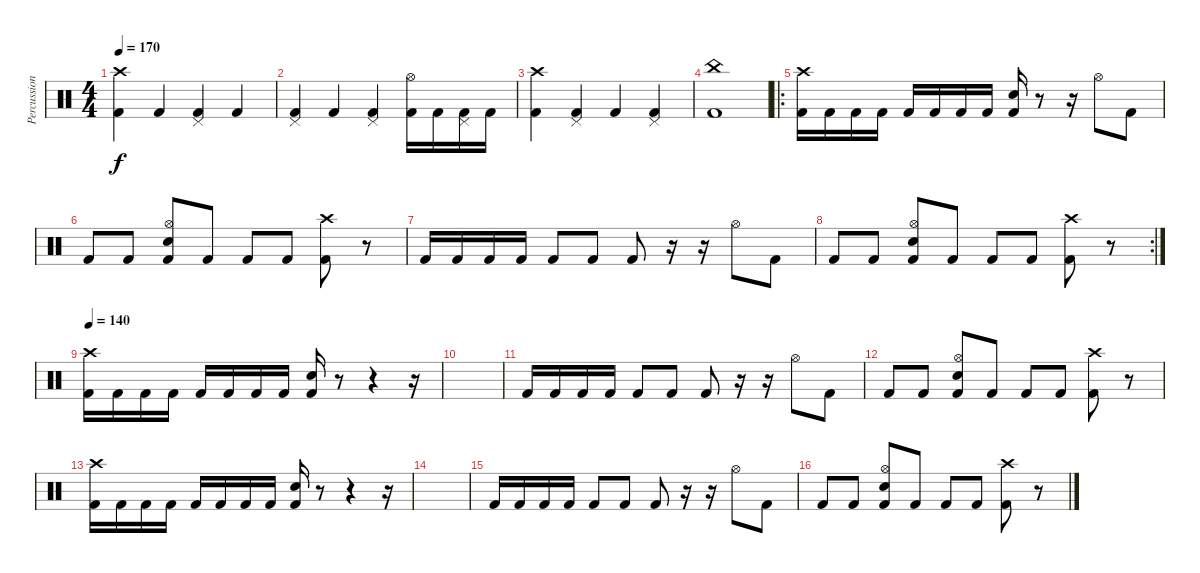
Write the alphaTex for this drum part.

\track ("Percussion" "Percussion") {instrument percussion}
\staff {score}
\articulation defaults
\ts (4 4)
\tempo 170
\clef neutral
\ks c
("Crash high (hit)" "Kick (hit) 2").4{dy f} "Kick (hit) 2".4 ("Pedal Hi-Hat (hit)" "Kick (hit) 2").4 "Kick (hit) 2".4 |
("Pedal Hi-Hat (hit)" "Kick (hit) 2").4 "Kick (hit) 2".4 ("Pedal Hi-Hat (hit)" "Kick (hit) 2").4 ("Hi-Hat (open)" "Kick (hit) 2").16 "Kick (hit) 2".16 ("Pedal Hi-Hat (hit)" "Kick (hit) 2").16 "Kick (hit) 2".16 |
("Crash high (hit)" "Kick (hit) 2").4 ("Pedal Hi-Hat (hit)" "Kick (hit) 2").4 "Kick (hit) 2".4 ("Pedal Hi-Hat (hit)" "Kick (hit) 2").4 |
("China (hit)" "Kick (hit) 2").1 |
\ro
("Crash high (hit)" "Kick (hit) 2").16 "Kick (hit) 2".16 "Kick (hit) 2".16 "Kick (hit) 2".16 "Kick (hit) 2".16 "Kick (hit) 2".16 "Kick (hit) 2".16 "Kick (hit) 2".16 ("Electric Snare (hit)" "Kick (hit) 2").16 r.8 r.16 "Hi-Hat (open)".8 "Kick (hit) 2".8 |
"Kick (hit) 2".8 "Kick (hit) 2".8 ("Hi-Hat (open)" "Electric Snare (hit)" "Kick (hit) 2").8 "Kick (hit) 2".8 "Kick (hit) 2".8 "Kick (hit) 2".8 ("Crash high (hit)" "Kick (hit) 2").8 r.8 |
"Kick (hit) 2".16 "Kick (hit) 2".16 "Kick (hit) 2".16 "Kick (hit) 2".16 "Kick (hit) 2".8 "Kick (hit) 2".8 "Kick (hit) 2".8 r.16 r.16 "Hi-Hat (open)".8 "Kick (hit) 2".8 |
\rc 2 "Kick (hit) 2".8 "Kick (hit) 2".8
("Hi-Hat (open)" "Electric Snare (hit)" "Kick (hit) 2").8 "Kick (hit) 2".8 "Kick (hit) 2".8 "Kick (hit) 2".8 ("Crash high (hit)" "Kick (hit) 2").8 r.8 |
\tempo 140
("Crash high (hit)" "Kick (hit) 2").16 "Kick (hit) 2".16 "Kick (hit) 2".16 "Kick (hit) 2".16 "Kick (hit) 2".16 "Kick (hit) 2".16 "Kick (hit) 2".16 "Kick (hit) 2".16 ("Electric Snare (hit)" "Kick (hit) 2").16 r.8 r.4 r.16 |
|
"Kick (hit) 2".16 "Kick (hit) 2".16 "Kick (hit) 2".16 "Kick (hit) 2".16 "Kick (hit) 2".8 "Kick (hit) 2".8 "Kick (hit) 2".8 r.16 r.16 "Hi-Hat (open)".8 "Kick (hit) 2".8 |
"Kick (hit) 2".8 "Kick (hit) 2".8 ("Hi-Hat (open)" "Electric Snare (hit)" "Kick (hit) 2").8 "Kick (hit) 2".8 "Kick (hit) 2".8 "Kick (hit) 2".8 ("Crash high (hit)" "Kick (hit) 2").8 r.8 |
("Crash high (hit)" "Kick (hit) 2").16 "Kick (hit) 2".16 "Kick (hit) 2".16 "Kick (hit) 2".16 "Kick (hit) 2".16 "Kick (hit) 2".16 "Kick (hit) 2".16 "Kick (hit) 2".16 ("Electric Snare (hit)" "Kick (hit) 2").16 r.8 r.4 r.16 |
|
"Kick (hit) 2".16 "Kick (hit) 2".16 "Kick (hit) 2".16 "Kick (hit) 2".16 "Kick (hit) 2".8 "Kick (hit) 2".8 "Kick (hit) 2".8 r.16 r.16 "Hi-Hat (open)".8 "Kick (hit) 2".8 |
"Kick (hit) 2".8 "Kick (hit) 2".8 ("Hi-Hat (open)" "Electric Snare (hit)" "Kick (hit) 2").8 "Kick (hit) 2".8 "Kick (hit) 2".8 "Kick (hit) 2".8 ("Crash high (hit)" "Kick (hit) 2").8 r.8
